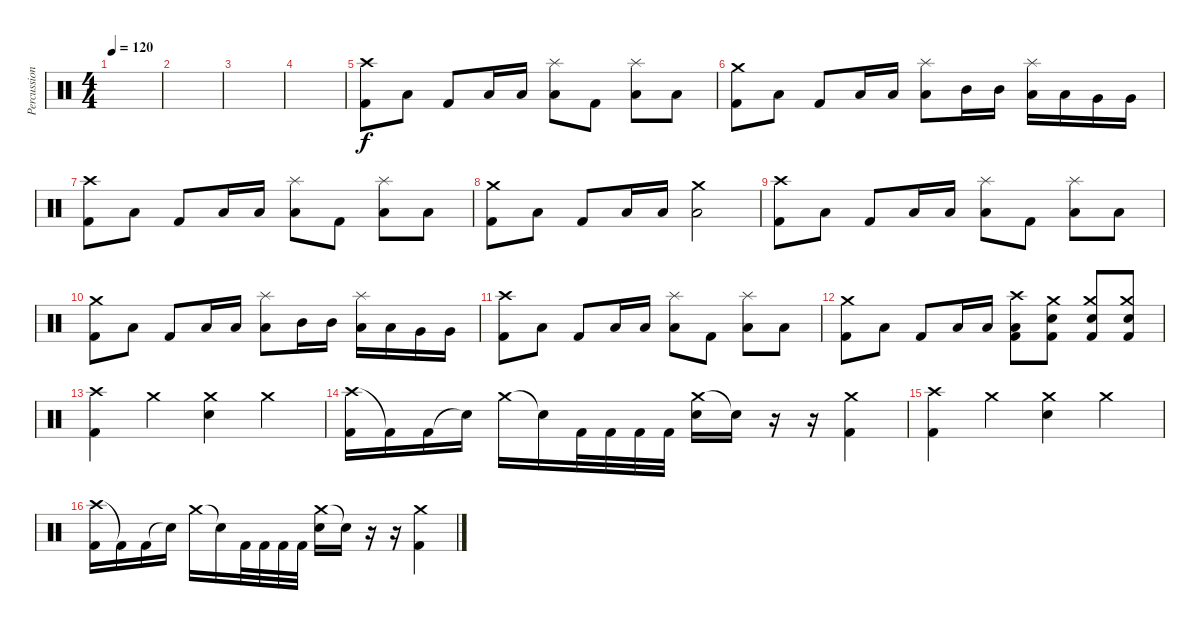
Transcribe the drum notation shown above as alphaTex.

\track ("Percussion" "Percussion") {instrument percussion}
\staff {score}
\articulation defaults
\ts (4 4)
\tempo 120
\clef neutral
\ks c
|
|
|
|
("Crash high (hit)" "Kick (hit) 2").8 "Low Floor Tom (hit)".8 "Kick (hit) 2".8 "Low Floor Tom (hit)".16 "Low Floor Tom (hit)".16 ("Splash (hit)" "Low Floor Tom (hit)").8 "Kick (hit) 2".8 ("Splash (hit)" "Low Floor Tom (hit)").8 "Low Floor Tom (hit)".8 |
("Crash medium (hit)" "Kick (hit) 2").8 "Low Floor Tom (hit)".8 "Kick (hit) 2".8 "Low Floor Tom (hit)".16 "Low Floor Tom (hit)".16 ("Splash (hit)" "Low Floor Tom (hit)").8 "Mid Tom (hit)".16 "Mid Tom (hit)".16 ("Splash (hit)" "Low Tom (hit)").16 "Low Tom (hit)".16 "Very Low Tom (hit)".16 "Very Low Tom (hit)".16 |
("Crash high (hit)" "Kick (hit) 2").8 "Low Floor Tom (hit)".8 "Kick (hit) 2".8 "Low Floor Tom (hit)".16 "Low Floor Tom (hit)".16 ("Splash (hit)" "Low Floor Tom (hit)").8 "Kick (hit) 2".8 ("Splash (hit)" "Low Floor Tom (hit)").8 "Low Floor Tom (hit)".8 |
("Crash medium (hit)" "Kick (hit) 2").8 "Low Floor Tom (hit)".8 "Kick (hit) 2".8 "Low Floor Tom (hit)".16 "Low Floor Tom (hit)".16 ("Crash medium (hit)" "Low Floor Tom (hit)").2 |
("Crash high (hit)" "Kick (hit) 2").8 "Low Floor Tom (hit)".8 "Kick (hit) 2".8 "Low Floor Tom (hit)".16 "Low Floor Tom (hit)".16 ("Splash (hit)" "Low Floor Tom (hit)").8 "Kick (hit) 2".8 ("Splash (hit)" "Low Floor Tom (hit)").8 "Low Floor Tom (hit)".8 |
("Crash medium (hit)" "Kick (hit) 2").8 "Low Floor Tom (hit)".8 "Kick (hit) 2".8 "Low Floor Tom (hit)".16 "Low Floor Tom (hit)".16 ("Splash (hit)" "Low Floor Tom (hit)").8 "Mid Tom (hit)".16 "Mid Tom (hit)".16 ("Splash (hit)" "Low Tom (hit)").16 "Low Tom (hit)".16 "Very Low Tom (hit)".16 "Very Low Tom (hit)".16 |
("Crash high (hit)" "Kick (hit) 2").8 "Low Floor Tom (hit)".8 "Kick (hit) 2".8 "Low Floor Tom (hit)".16 "Low Floor Tom (hit)".16 ("Splash (hit)" "Low Floor Tom (hit)").8 "Kick (hit) 2".8 ("Splash (hit)" "Low Floor Tom (hit)").8 "Low Floor Tom (hit)".8 |
("Crash medium (hit)" "Kick (hit) 2").8 "Low Floor Tom (hit)".8 "Kick (hit) 2".8 "Low Floor Tom (hit)".16 "Low Floor Tom (hit)".16 ("Crash high (hit)" "Low Floor Tom (hit)" "Kick (hit) 2").8 ("Crash medium (hit)" "Snare (hit) 2" "Kick (hit) 2").8 ("Crash medium (hit)" "Snare (hit) 2" "Kick (hit) 2").8 ("Crash medium (hit)" "Snare (hit) 2" "Kick (hit) 2").8 |
("Crash high (hit)" "Kick (hit) 2").4 "Crash medium (hit)".4 ("Crash medium (hit)" "Snare (hit) 2").4 "Crash medium (hit)".4 |
("Crash high (hit)" "Kick (hit) 2").16 "Kick (hit) 2"{t}.16 "Kick (hit) 2".16 "Snare (hit)"{t}.16 "Crash medium (hit)".16 "Snare (hit)"{t}.16 "Kick (hit) 2".32 "Kick (hit) 2".32 "Kick (hit) 2".32 "Kick (hit) 2".32 ("Crash medium (hit)" "Snare (hit) 2").16 "Snare (hit)"{t}.16 r.16 r.16 ("Crash medium (hit)" "Kick (hit) 2").4 |
("Crash high (hit)" "Kick (hit) 2").4 "Crash medium (hit)".4 ("Crash medium (hit)" "Snare (hit) 2").4 "Crash medium (hit)".4 |
("Crash high (hit)" "Kick (hit) 2").16 "Kick (hit) 2"{t}.16 "Kick (hit) 2".16 "Snare (hit)"{t}.16 "Crash medium (hit)".16 "Snare (hit)"{t}.16 "Kick (hit) 2".32 "Kick (hit) 2".32 "Kick (hit) 2".32 "Kick (hit) 2".32 ("Crash medium (hit)" "Snare (hit) 2").16 "Snare (hit)"{t}.16 r.16 r.16 ("Crash medium (hit)" "Kick (hit) 2").4
